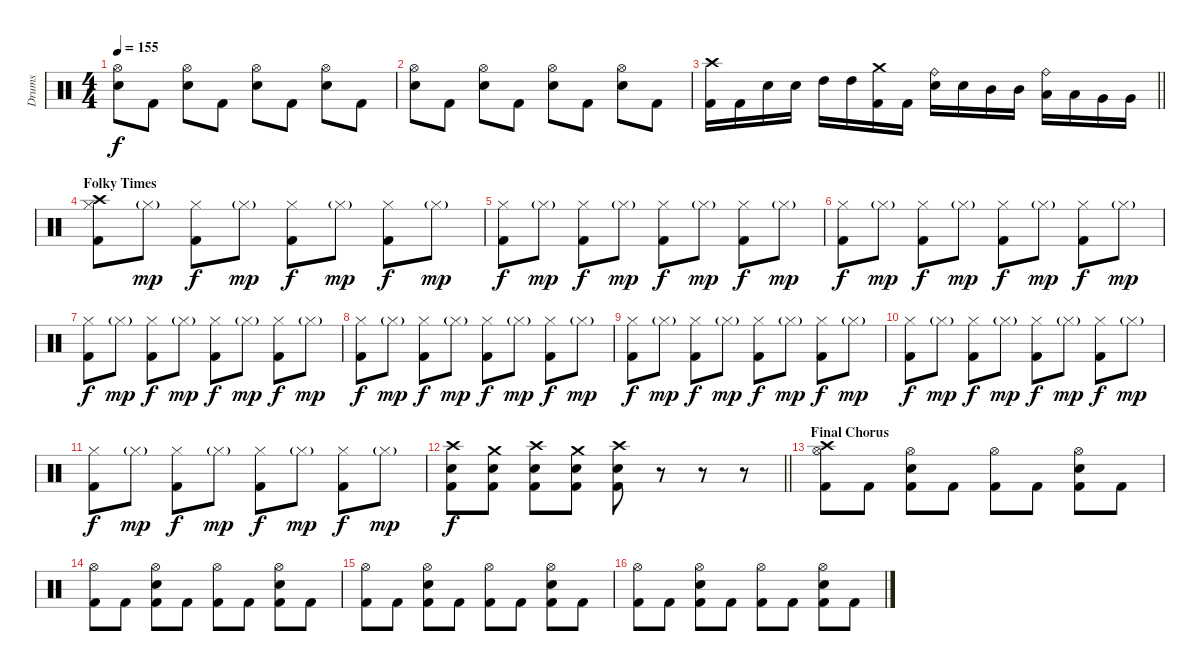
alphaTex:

\track ("Drums" "Drums") {instrument percussion}
\staff {score}
\articulation defaults
\ts (4 4)
\tempo 155
\clef neutral
\ks c
("Hi-Hat (open)" "Snare (hit) 2").8{dy f} "Kick (hit) 2".8 ("Hi-Hat (open)" "Snare (hit) 2").8 "Kick (hit) 2".8 ("Hi-Hat (open)" "Snare (hit) 2").8 "Kick (hit) 2".8 ("Hi-Hat (open)" "Snare (hit) 2").8 "Kick (hit) 2".8 |
("Hi-Hat (open)" "Snare (hit) 2").8 "Kick (hit) 2".8 ("Hi-Hat (open)" "Snare (hit) 2").8 "Kick (hit) 2".8 ("Hi-Hat (open)" "Snare (hit) 2").8 "Kick (hit) 2".8 ("Hi-Hat (open)" "Snare (hit) 2").8 "Kick (hit) 2".8 |
\barLineRight lightlight
("Crash high (hit)" "Kick (hit) 2").16 "Kick (hit) 2".16 "Snare (hit) 2".16 "Snare (hit) 2".16 "High Tom (hit)".16 "High Tom (hit)".16 ("Crash medium (hit)" "Kick (hit) 2").16 "Kick (hit) 2".16 ("Ride (bell)" "Snare (hit) 2").16 "Snare (hit) 2".16 "Mid Tom (hit)".16 "Mid Tom (hit)".16 ("Ride (bell)" "Low Tom (hit)").16 "Low Tom (hit)".16 "Very Low Tom (hit)".16 "Very Low Tom (hit)".16 |
\section ("" "Folky Times")
("Crash high (hit)" "Hi-Hat (closed)" "Kick (hit) 2").8 "Hi-Hat (closed)"{g}.8{dy mp} ("Hi-Hat (closed)" "Kick (hit) 2").8{dy f} "Hi-Hat (closed)"{g}.8{dy mp} ("Hi-Hat (closed)" "Kick (hit) 2").8{dy f} "Hi-Hat (closed)"{g}.8{dy mp} ("Hi-Hat (closed)" "Kick (hit) 2").8{dy f} "Hi-Hat (closed)"{g}.8{dy mp} |
("Hi-Hat (closed)" "Kick (hit) 2").8{dy f} "Hi-Hat (closed)"{g}.8{dy mp} ("Hi-Hat (closed)" "Kick (hit) 2").8{dy f} "Hi-Hat (closed)"{g}.8{dy mp} ("Hi-Hat (closed)" "Kick (hit) 2").8{dy f} "Hi-Hat (closed)"{g}.8{dy mp} ("Hi-Hat (closed)" "Kick (hit) 2").8{dy f} "Hi-Hat (closed)"{g}.8{dy mp} |
("Hi-Hat (closed)" "Kick (hit) 2").8{dy f} "Hi-Hat (closed)"{g}.8{dy mp} ("Hi-Hat (closed)" "Kick (hit) 2").8{dy f} "Hi-Hat (closed)"{g}.8{dy mp} ("Hi-Hat (closed)" "Kick (hit) 2").8{dy f} "Hi-Hat (closed)"{g}.8{dy mp} ("Hi-Hat (closed)" "Kick (hit) 2").8{dy f} "Hi-Hat (closed)"{g}.8{dy mp} |
("Hi-Hat (closed)" "Kick (hit) 2").8{dy f} "Hi-Hat (closed)"{g}.8{dy mp} ("Hi-Hat (closed)" "Kick (hit) 2").8{dy f} "Hi-Hat (closed)"{g}.8{dy mp} ("Hi-Hat (closed)" "Kick (hit) 2").8{dy f} "Hi-Hat (closed)"{g}.8{dy mp} ("Hi-Hat (closed)" "Kick (hit) 2").8{dy f} "Hi-Hat (closed)"{g}.8{dy mp} |
("Hi-Hat (closed)" "Kick (hit) 2").8{dy f} "Hi-Hat (closed)"{g}.8{dy mp} ("Hi-Hat (closed)" "Kick (hit) 2").8{dy f} "Hi-Hat (closed)"{g}.8{dy mp} ("Hi-Hat (closed)" "Kick (hit) 2").8{dy f} "Hi-Hat (closed)"{g}.8{dy mp} ("Hi-Hat (closed)" "Kick (hit) 2").8{dy f} "Hi-Hat (closed)"{g}.8{dy mp} |
("Hi-Hat (closed)" "Kick (hit) 2").8{dy f} "Hi-Hat (closed)"{g}.8{dy mp} ("Hi-Hat (closed)" "Kick (hit) 2").8{dy f} "Hi-Hat (closed)"{g}.8{dy mp} ("Hi-Hat (closed)" "Kick (hit) 2").8{dy f} "Hi-Hat (closed)"{g}.8{dy mp} ("Hi-Hat (closed)" "Kick (hit) 2").8{dy f} "Hi-Hat (closed)"{g}.8{dy mp} |
("Hi-Hat (closed)" "Kick (hit) 2").8{dy f} "Hi-Hat (closed)"{g}.8{dy mp} ("Hi-Hat (closed)" "Kick (hit) 2").8{dy f} "Hi-Hat (closed)"{g}.8{dy mp} ("Hi-Hat (closed)" "Kick (hit) 2").8{dy f} "Hi-Hat (closed)"{g}.8{dy mp} ("Hi-Hat (closed)" "Kick (hit) 2").8{dy f} "Hi-Hat (closed)"{g}.8{dy mp} |
("Hi-Hat (closed)" "Kick (hit) 2").8{dy f} "Hi-Hat (closed)"{g}.8{dy mp} ("Hi-Hat (closed)" "Kick (hit) 2").8{dy f} "Hi-Hat (closed)"{g}.8{dy mp} ("Hi-Hat (closed)" "Kick (hit) 2").8{dy f} "Hi-Hat (closed)"{g}.8{dy mp} ("Hi-Hat (closed)" "Kick (hit) 2").8{dy f} "Hi-Hat (closed)"{g}.8{dy mp} |
\barLineRight lightlight
("Crash high (hit)" "Snare (hit) 2" "Kick (hit) 2").8{dy f} ("Crash medium (hit)" "Snare (hit) 2" "Kick (hit) 2").8 ("Crash high (hit)" "Snare (hit) 2" "Kick (hit) 2").8 ("Crash medium (hit)" "Snare (hit) 2" "Kick (hit) 2").8 ("Crash high (hit)" "Snare (hit) 2" "Kick (hit) 2").8 r.8 r.8 r.8 |
\section ("" "Final Chorus")
("Crash high (hit)" "Hi-Hat (open)" "Kick (hit) 2").8 "Kick (hit) 2".8 ("Hi-Hat (open)" "Snare (hit) 2" "Kick (hit) 2").8 "Kick (hit) 2".8 ("Hi-Hat (open)" "Kick (hit) 2").8 "Kick (hit) 2".8 ("Hi-Hat (open)" "Snare (hit) 2" "Kick (hit) 2").8 "Kick (hit) 2".8 |
("Hi-Hat (open)" "Kick (hit) 2").8 "Kick (hit) 2".8 ("Hi-Hat (open)" "Snare (hit) 2" "Kick (hit) 2").8 "Kick (hit) 2".8 ("Hi-Hat (open)" "Kick (hit) 2").8 "Kick (hit) 2".8 ("Hi-Hat (open)" "Snare (hit) 2" "Kick (hit) 2").8 "Kick (hit) 2".8 |
("Hi-Hat (open)" "Kick (hit) 2").8 "Kick (hit) 2".8 ("Hi-Hat (open)" "Snare (hit) 2" "Kick (hit) 2").8 "Kick (hit) 2".8 ("Hi-Hat (open)" "Kick (hit) 2").8 "Kick (hit) 2".8 ("Hi-Hat (open)" "Snare (hit) 2" "Kick (hit) 2").8 "Kick (hit) 2".8 |
("Hi-Hat (open)" "Kick (hit) 2").8 "Kick (hit) 2".8 ("Hi-Hat (open)" "Snare (hit) 2" "Kick (hit) 2").8 "Kick (hit) 2".8 ("Hi-Hat (open)" "Kick (hit) 2").8 "Kick (hit) 2".8 ("Hi-Hat (open)" "Snare (hit) 2" "Kick (hit) 2").8 "Kick (hit) 2".8
